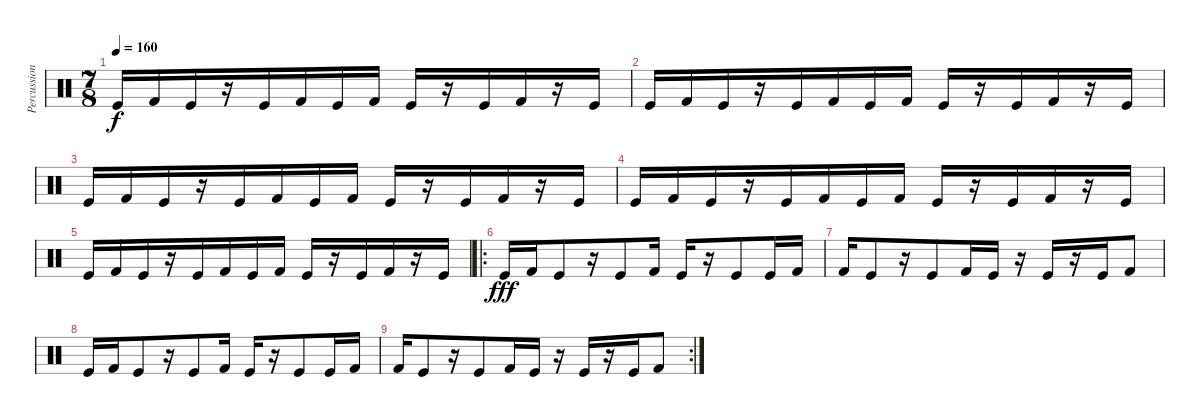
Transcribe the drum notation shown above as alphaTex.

\track ("Percussion" "Percussion") {instrument percussion}
\staff {score}
\articulation defaults
\ts (7 8)
\tempo 160
\clef neutral
\ks c "Kick (hit)".16{dy f} "Kick (hit) 2".16 "Kick (hit)".16
r.16 "Kick (hit)".16 "Kick (hit) 2".16 "Kick (hit)".16 "Kick (hit) 2".16 "Kick (hit)".16 r.16 "Kick (hit)".16 "Kick (hit) 2".16 r.16 "Kick (hit)".16 |
"Kick (hit)".16 "Kick (hit) 2".16 "Kick (hit)".16 r.16 "Kick (hit)".16 "Kick (hit) 2".16 "Kick (hit)".16 "Kick (hit) 2".16 "Kick (hit)".16 r.16 "Kick (hit)".16 "Kick (hit) 2".16 r.16 "Kick (hit)".16 |
"Kick (hit)".16 "Kick (hit) 2".16 "Kick (hit)".16 r.16 "Kick (hit)".16 "Kick (hit) 2".16 "Kick (hit)".16 "Kick (hit) 2".16 "Kick (hit)".16 r.16 "Kick (hit)".16 "Kick (hit) 2".16 r.16 "Kick (hit)".16 |
"Kick (hit)".16 "Kick (hit) 2".16 "Kick (hit)".16 r.16 "Kick (hit)".16 "Kick (hit) 2".16 "Kick (hit)".16 "Kick (hit) 2".16 "Kick (hit)".16 r.16 "Kick (hit)".16 "Kick (hit) 2".16 r.16 "Kick (hit)".16 |
"Kick (hit)".16 "Kick (hit) 2".16 "Kick (hit)".16 r.16 "Kick (hit)".16 "Kick (hit) 2".16 "Kick (hit)".16 "Kick (hit) 2".16 "Kick (hit)".16 r.16 "Kick (hit)".16 "Kick (hit) 2".16 r.16 "Kick (hit)".16 |
\ro "Kick (hit)".16{dy fff} "Kick (hit) 2".16 "Kick (hit)".8
r.16 "Kick (hit)".8 "Kick (hit) 2".16 "Kick (hit)".16 r.16 "Kick (hit)".8 "Kick (hit)".16 "Kick (hit) 2".16 |
"Kick (hit) 2".16 "Kick (hit)".8 r.16 "Kick (hit)".8 "Kick (hit) 2".16 "Kick (hit)".16 r.16 "Kick (hit)".16 r.16 "Kick (hit)".16 "Kick (hit) 2".8 |
"Kick (hit)".16 "Kick (hit) 2".16 "Kick (hit)".8 r.16 "Kick (hit)".8 "Kick (hit) 2".16 "Kick (hit)".16 r.16 "Kick (hit)".8 "Kick (hit)".16 "Kick (hit) 2".16 |
\rc 2 "Kick (hit) 2".16 "Kick (hit)".8
r.16 "Kick (hit)".8 "Kick (hit) 2".16 "Kick (hit)".16 r.16 "Kick (hit)".16 r.16 "Kick (hit)".16 "Kick (hit) 2".8
